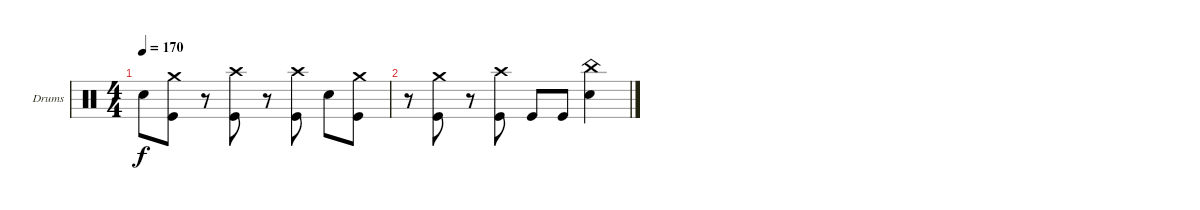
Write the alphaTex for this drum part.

\defaultSystemsLayout 4
\bracketExtendMode groupsimilarinstruments
\firstSystemTrackNameOrientation horizontal
\otherSystemsTrackNameOrientation horizontal
\track ("Drumkit" "Drums") {instrument percussion}
\staff {score}
\articulation defaults
\ts (4 4)
\tempo 170
\clef neutral
\ks c "Snare (hit) 2".8{dy f}
("Kick (hit)" "Crash medium (hit)").8 r.8 ("Kick (hit)" "Crash high (hit)").8 r.8 ("Kick (hit)" "Crash high (hit)").8 "Snare (hit) 2".8 ("Kick (hit)" "Crash medium (hit)").8 |
r.8 ("Kick (hit)" "Crash medium (hit)").8 r.8 ("Kick (hit)" "Crash high (hit)").8 "Kick (hit)".8 "Kick (hit)".8 ("Snare (hit) 2" "China (hit)").4
